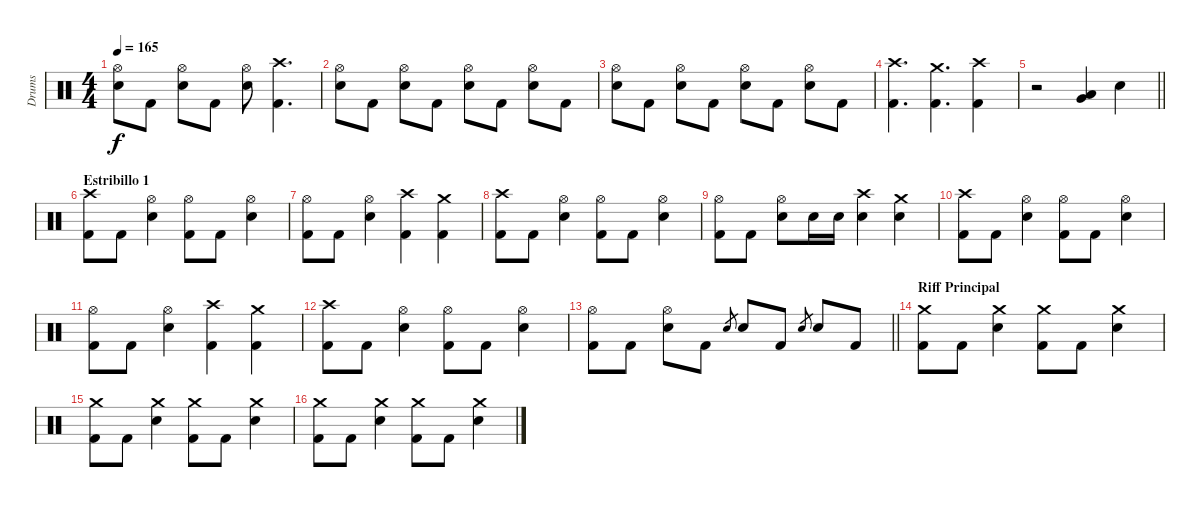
\track ("Drums" "Drums") {instrument percussion}
\staff {score}
\articulation defaults
\ts (4 4)
\tempo 165
\clef neutral
\ks c
("Hi-Hat (open)" "Electric Snare (hit)").8{dy f} "Kick (hit) 2".8 ("Hi-Hat (open)" "Electric Snare (hit)").8 "Kick (hit) 2".8 ("Hi-Hat (open)" "Electric Snare (hit)").8 ("Crash high (hit)" "Kick (hit) 2").4{d} |
("Hi-Hat (open)" "Electric Snare (hit)").8 "Kick (hit) 2".8 ("Hi-Hat (open)" "Electric Snare (hit)").8 "Kick (hit) 2".8 ("Hi-Hat (open)" "Electric Snare (hit)").8 "Kick (hit) 2".8 ("Hi-Hat (open)" "Electric Snare (hit)").8 "Kick (hit) 2".8 |
("Hi-Hat (open)" "Electric Snare (hit)").8 "Kick (hit) 2".8 ("Hi-Hat (open)" "Electric Snare (hit)").8 "Kick (hit) 2".8 ("Hi-Hat (open)" "Electric Snare (hit)").8 "Kick (hit) 2".8 ("Hi-Hat (open)" "Electric Snare (hit)").8 "Kick (hit) 2".8 |
("Crash high (hit)" "Kick (hit) 2").4{d} ("Crash medium (hit)" "Kick (hit) 2").4{d} ("Crash high (hit)" "Kick (hit) 2").4 |
\barLineRight lightlight
r.2 ("Very Low Tom (hit)" "Low Floor Tom (hit)").4 "Electric Snare (hit)".4 |
\section ("" "Estribillo 1")
("Crash high (hit)" "Kick (hit) 2").8 "Kick (hit) 2".8 ("Hi-Hat (open)" "Electric Snare (hit)").4 ("Hi-Hat (open)" "Kick (hit) 2").8 "Kick (hit) 2".8 ("Hi-Hat (open)" "Electric Snare (hit)").4 |
("Hi-Hat (open)" "Kick (hit) 2").8 "Kick (hit) 2".8 ("Hi-Hat (open)" "Electric Snare (hit)").4 ("Crash high (hit)" "Kick (hit) 2").4 ("Crash medium (hit)" "Kick (hit) 2").4 |
("Crash high (hit)" "Kick (hit) 2").8 "Kick (hit) 2".8 ("Hi-Hat (open)" "Electric Snare (hit)").4 ("Hi-Hat (open)" "Kick (hit) 2").8 "Kick (hit) 2".8 ("Hi-Hat (open)" "Electric Snare (hit)").4 |
("Hi-Hat (open)" "Kick (hit) 2").8 "Kick (hit) 2".8 ("Hi-Hat (open)" "Electric Snare (hit)").8 "Electric Snare (hit)".16 "Electric Snare (hit)".16 ("Crash high (hit)" "Electric Snare (hit)").4 ("Crash medium (hit)" "Electric Snare (hit)").4 |
("Crash high (hit)" "Kick (hit) 2").8 "Kick (hit) 2".8 ("Hi-Hat (open)" "Electric Snare (hit)").4 ("Hi-Hat (open)" "Kick (hit) 2").8 "Kick (hit) 2".8 ("Hi-Hat (open)" "Electric Snare (hit)").4 |
("Hi-Hat (open)" "Kick (hit) 2").8 "Kick (hit) 2".8 ("Hi-Hat (open)" "Electric Snare (hit)").4 ("Crash high (hit)" "Kick (hit) 2").4 ("Crash medium (hit)" "Kick (hit) 2").4 |
("Crash high (hit)" "Kick (hit) 2").8 "Kick (hit) 2".8 ("Hi-Hat (open)" "Electric Snare (hit)").4 ("Hi-Hat (open)" "Kick (hit) 2").8 "Kick (hit) 2".8 ("Hi-Hat (open)" "Electric Snare (hit)").4 |
\barLineRight lightlight
("Hi-Hat (open)" "Kick (hit) 2").8 "Kick (hit) 2".8 ("Hi-Hat (open)" "Electric Snare (hit)").8 "Kick (hit) 2".8 "Electric Snare (hit)".8{gr} "Electric Snare (hit)".8 "Kick (hit) 2".8 "Electric Snare (hit)".8{gr} "Electric Snare (hit)".8 "Kick (hit) 2".8 |
\section ("" "Riff Principal")
("Crash medium (hit)" "Kick (hit) 2").8 "Kick (hit) 2".8 ("Crash medium (hit)" "Electric Snare (hit)").4 ("Crash medium (hit)" "Kick (hit) 2").8 "Kick (hit) 2".8 ("Crash medium (hit)" "Electric Snare (hit)").4 |
("Crash medium (hit)" "Kick (hit) 2").8 "Kick (hit) 2".8 ("Crash medium (hit)" "Electric Snare (hit)").4 ("Crash medium (hit)" "Kick (hit) 2").8 "Kick (hit) 2".8 ("Crash medium (hit)" "Electric Snare (hit)").4 |
("Crash medium (hit)" "Kick (hit) 2").8 "Kick (hit) 2".8 ("Crash medium (hit)" "Electric Snare (hit)").4 ("Crash medium (hit)" "Kick (hit) 2").8 "Kick (hit) 2".8 ("Crash medium (hit)" "Electric Snare (hit)").4
